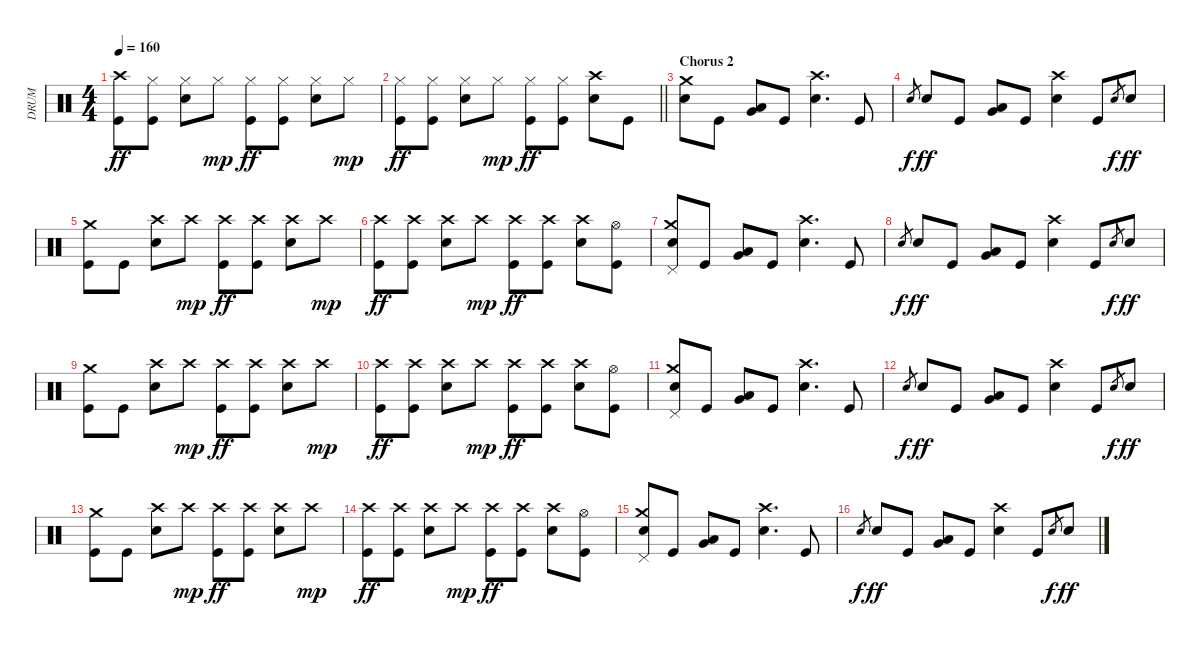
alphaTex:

\track ("DRUM" "DRUM") {instrument percussion}
\staff {score}
\articulation defaults
\ts (4 4)
\tempo 160
\clef neutral
\ks c
("Crash high (hit)" "Kick (hit)").8{dy ff} ("Hi-Hat (closed)" "Kick (hit)").8 ("Hi-Hat (closed)" "Electric Snare (hit)").8 "Hi-Hat (closed)".8{dy mp} ("Hi-Hat (closed)" "Kick (hit)").8{dy ff} ("Hi-Hat (closed)" "Kick (hit)").8 ("Hi-Hat (closed)" "Electric Snare (hit)").8 "Hi-Hat (closed)".8{dy mp} |
\barLineRight lightlight
("Hi-Hat (closed)" "Kick (hit)").8{dy ff} ("Hi-Hat (closed)" "Kick (hit)").8 ("Hi-Hat (closed)" "Electric Snare (hit)").8 "Hi-Hat (closed)".8{dy mp} ("Hi-Hat (closed)" "Kick (hit)").8{dy ff} ("Hi-Hat (closed)" "Kick (hit)").8 ("Crash high (hit)" "Electric Snare (hit)").8 "Kick (hit)".8 |
\section ("" "Chorus 2")
("Crash medium (hit)" "Electric Snare (hit)").8 "Kick (hit)".8 ("Very Low Tom (hit)" "Low Floor Tom (hit)").8 "Kick (hit)".8 ("Crash high (hit)" "Electric Snare (hit)").4{d} "Kick (hit)".8 |
"Electric Snare (hit)".8{gr dy f} "Electric Snare (hit)".8{dy ff} "Kick (hit)".8 ("Very Low Tom (hit)" "Low Floor Tom (hit)").8 "Kick (hit)".8 ("Crash high (hit)" "Electric Snare (hit)").4 "Kick (hit)".8 "Electric Snare (hit)".8{gr dy f} "Electric Snare (hit)".8{dy ff} |
("Crash medium (hit)" "Kick (hit)").8 "Kick (hit)".8 ("Crash high (hit)" "Electric Snare (hit)").8 "Crash high (hit)".8{dy mp} ("Crash high (hit)" "Kick (hit)").8{dy ff} ("Crash high (hit)" "Kick (hit)").8 ("Crash high (hit)" "Electric Snare (hit)").8 "Crash high (hit)".8{dy mp} |
("Crash high (hit)" "Kick (hit)").8{dy ff} ("Crash high (hit)" "Kick (hit)").8 ("Crash high (hit)" "Electric Snare (hit)").8 "Crash high (hit)".8{dy mp} ("Crash high (hit)" "Kick (hit)").8{dy ff} ("Crash high (hit)" "Kick (hit)").8 ("Crash high (hit)" "Electric Snare (hit)").8 ("Hi-Hat (open)" "Kick (hit)").8 |
("Crash medium (hit)" "Pedal Hi-Hat (hit)" "Electric Snare (hit)").8 "Kick (hit)".8 ("Very Low Tom (hit)" "Low Floor Tom (hit)").8 "Kick (hit)".8 ("Crash high (hit)" "Electric Snare (hit)").4{d} "Kick (hit)".8 |
"Electric Snare (hit)".8{gr dy f} "Electric Snare (hit)".8{dy ff} "Kick (hit)".8 ("Very Low Tom (hit)" "Low Floor Tom (hit)").8 "Kick (hit)".8 ("Crash high (hit)" "Electric Snare (hit)").4 "Kick (hit)".8 "Electric Snare (hit)".8{gr dy f} "Electric Snare (hit)".8{dy ff} |
("Crash medium (hit)" "Kick (hit)").8 "Kick (hit)".8 ("Crash high (hit)" "Electric Snare (hit)").8 "Crash high (hit)".8{dy mp} ("Crash high (hit)" "Kick (hit)").8{dy ff} ("Crash high (hit)" "Kick (hit)").8 ("Crash high (hit)" "Electric Snare (hit)").8 "Crash high (hit)".8{dy mp} |
("Crash high (hit)" "Kick (hit)").8{dy ff} ("Crash high (hit)" "Kick (hit)").8 ("Crash high (hit)" "Electric Snare (hit)").8 "Crash high (hit)".8{dy mp} ("Crash high (hit)" "Kick (hit)").8{dy ff} ("Crash high (hit)" "Kick (hit)").8 ("Crash high (hit)" "Electric Snare (hit)").8 ("Hi-Hat (open)" "Kick (hit)").8 |
("Crash medium (hit)" "Pedal Hi-Hat (hit)" "Electric Snare (hit)").8 "Kick (hit)".8 ("Very Low Tom (hit)" "Low Floor Tom (hit)").8 "Kick (hit)".8 ("Crash high (hit)" "Electric Snare (hit)").4{d} "Kick (hit)".8 |
"Electric Snare (hit)".8{gr dy f} "Electric Snare (hit)".8{dy ff} "Kick (hit)".8 ("Very Low Tom (hit)" "Low Floor Tom (hit)").8 "Kick (hit)".8 ("Crash high (hit)" "Electric Snare (hit)").4 "Kick (hit)".8 "Electric Snare (hit)".8{gr dy f} "Electric Snare (hit)".8{dy ff} |
("Crash medium (hit)" "Kick (hit)").8 "Kick (hit)".8 ("Crash high (hit)" "Electric Snare (hit)").8 "Crash high (hit)".8{dy mp} ("Crash high (hit)" "Kick (hit)").8{dy ff} ("Crash high (hit)" "Kick (hit)").8 ("Crash high (hit)" "Electric Snare (hit)").8 "Crash high (hit)".8{dy mp} |
("Crash high (hit)" "Kick (hit)").8{dy ff} ("Crash high (hit)" "Kick (hit)").8 ("Crash high (hit)" "Electric Snare (hit)").8 "Crash high (hit)".8{dy mp} ("Crash high (hit)" "Kick (hit)").8{dy ff} ("Crash high (hit)" "Kick (hit)").8 ("Crash high (hit)" "Electric Snare (hit)").8 ("Hi-Hat (open)" "Kick (hit)").8 |
("Crash medium (hit)" "Pedal Hi-Hat (hit)" "Electric Snare (hit)").8 "Kick (hit)".8 ("Very Low Tom (hit)" "Low Floor Tom (hit)").8 "Kick (hit)".8 ("Crash high (hit)" "Electric Snare (hit)").4{d} "Kick (hit)".8 |
"Electric Snare (hit)".8{gr dy f} "Electric Snare (hit)".8{dy ff} "Kick (hit)".8 ("Very Low Tom (hit)" "Low Floor Tom (hit)").8 "Kick (hit)".8 ("Crash high (hit)" "Electric Snare (hit)").4 "Kick (hit)".8 "Electric Snare (hit)".8{gr dy f} "Electric Snare (hit)".8{dy ff}
